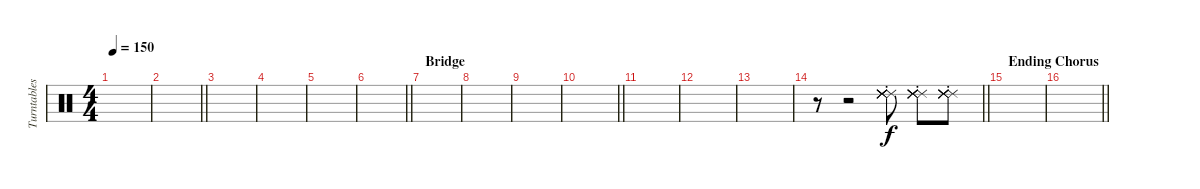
\track ("Turntables - Joe Hahn" "Turntables") {instrument percussion}
\staff {score}
\articulation defaults
\ts (4 4)
\tempo 150
\clef neutral
\ks c
|
\barLineRight lightlight
|
|
|
|
\barLineRight lightlight
|
\section ("" "Bridge")
|
|
|
\barLineRight lightlight
|
|
|
|
\barLineRight lightlight
r.8{volume 16} r.2 ("Ride (choke) 2" "Ride (choke) 2" "Ride (choke) 2" "Ride (choke) 2" "Ride (choke) 2" "Ride (choke) 2").8 ("Ride (choke) 2" "Ride (choke) 2" "Ride (choke) 2" "Ride (choke) 2" "Ride (choke) 2" "Ride (choke) 2").8 ("Ride (choke) 2" "Ride (choke) 2" "Ride (choke) 2" "Ride (choke) 2" "Ride (choke) 2" "Ride (choke) 2").8 |
\section ("" "Ending Chorus")
|
\barLineRight lightlight
